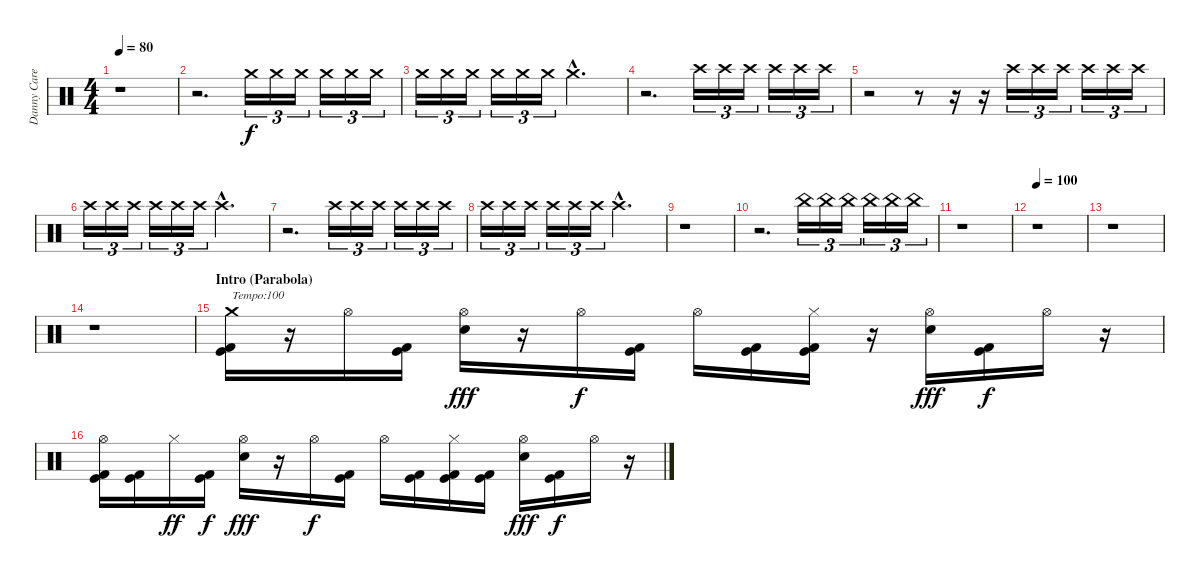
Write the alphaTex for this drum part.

\track ("Danny Carey - Percussion" "Danny Care") {instrument percussion}
\staff {score}
\articulation defaults
\ts (4 4)
\tempo 80
\clef neutral
\ks c
r.1{dy f} |
r.2{d volume 0} "Crash medium (hit)".16{tu (3 2) volume 10} "Crash medium (hit)".16{tu (3 2)} "Crash medium (hit)".16{tu (3 2)} "Crash medium (hit)".16{tu (3 2)} "Crash medium (hit)".16{tu (3 2)} "Crash medium (hit)".16{tu (3 2)} |
"Crash medium (hit)".16{tu (3 2)} "Crash medium (hit)".16{tu (3 2)} "Crash medium (hit)".16{tu (3 2)} "Crash medium (hit)".16{tu (3 2)} "Crash medium (hit)".16{tu (3 2)} "Crash medium (hit)".16{tu (3 2)} "Crash medium (hit)"{hac}.2{d} |
r.2{d volume 0} "Crash high (hit)".16{tu (3 2) volume 10} "Crash high (hit)".16{tu (3 2)} "Crash high (hit)".16{tu (3 2)} "Crash high (hit)".16{tu (3 2)} "Crash high (hit)".16{tu (3 2)} "Crash high (hit)".16{tu (3 2)} |
r.2 r.8 r.16 r.16{volume 0} "Crash high (hit)".16{tu (3 2) volume 10} "Crash high (hit)".16{tu (3 2)} "Crash high (hit)".16{tu (3 2)} "Crash high (hit)".16{tu (3 2)} "Crash high (hit)".16{tu (3 2)} "Crash high (hit)".16{tu (3 2)} |
"Crash high (hit)".16{tu (3 2)} "Crash high (hit)".16{tu (3 2)} "Crash high (hit)".16{tu (3 2)} "Crash high (hit)".16{tu (3 2)} "Crash high (hit)".16{tu (3 2)} "Crash high (hit)".16{tu (3 2)} "Crash high (hit)"{hac}.2{d} |
r.2{d volume 0} "Crash high (hit)".16{tu (3 2) volume 10} "Crash high (hit)".16{tu (3 2)} "Crash high (hit)".16{tu (3 2)} "Crash high (hit)".16{tu (3 2)} "Crash high (hit)".16{tu (3 2)} "Crash high (hit)".16{tu (3 2)} |
"Crash high (hit)".16{tu (3 2)} "Crash high (hit)".16{tu (3 2)} "Crash high (hit)".16{tu (3 2)} "Crash high (hit)".16{tu (3 2)} "Crash high (hit)".16{tu (3 2)} "Crash high (hit)".16{tu (3 2)} "Crash high (hit)"{hac}.2{d} |
r.1 |
r.2{d volume 0} "China (hit)".16{tu (3 2) volume 10} "China (hit)".16{tu (3 2)} "China (hit)".16{tu (3 2)} "China (hit)".16{tu (3 2)} "China (hit)".16{tu (3 2)} "China (hit)".16{tu (3 2)} |
r.1 |
\tempo 100
r.1 |
r.1 |
r.1 |
\section ("" "Intro (Parabola)")
("Crash medium (hit)" "Kick (hit)" "Kick (hit) 2").16{txt "Tempo:100"} r.16 "Hi-Hat (open)".16 ("Kick (hit)" "Kick (hit) 2").16 ("Hi-Hat (open)" "Electric Snare (hit)").16{dy fff} r.16 "Hi-Hat (open)".16{dy f} ("Kick (hit)" "Kick (hit) 2").16 "Hi-Hat (open)".16 ("Kick (hit)" "Kick (hit) 2").16 ("Hi-Hat (closed)" "Kick (hit)" "Kick (hit) 2").16 r.16 ("Hi-Hat (open)" "Electric Snare (hit)").16{dy fff} ("Kick (hit)" "Kick (hit) 2").16{dy f} "Hi-Hat (open)".16 r.16 |
("Hi-Hat (open)" "Kick (hit)" "Kick (hit) 2").16 ("Kick (hit)" "Kick (hit) 2").16 "Hi-Hat (closed)".16{dy ff} ("Kick (hit)" "Kick (hit) 2").16{dy f} ("Hi-Hat (open)" "Electric Snare (hit)").16{dy fff} r.16 "Hi-Hat (open)".16{dy f} ("Kick (hit)" "Kick (hit) 2").16 "Hi-Hat (open)".16 ("Kick (hit)" "Kick (hit) 2").16 ("Hi-Hat (closed)" "Kick (hit)" "Kick (hit) 2").16 ("Kick (hit)" "Kick (hit) 2").16 ("Hi-Hat (open)" "Electric Snare (hit)").16{dy fff} ("Kick (hit)" "Kick (hit) 2").16{dy f} "Hi-Hat (open)".16 r.16
